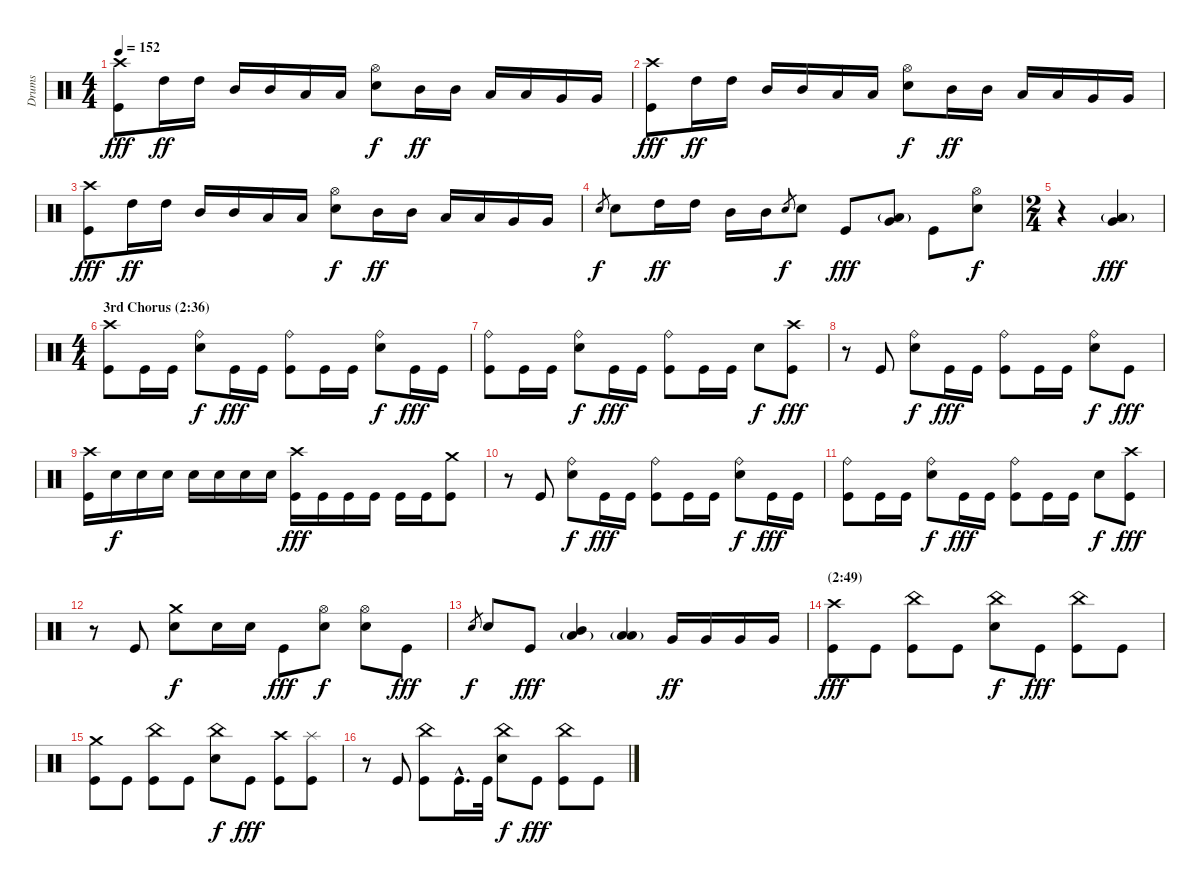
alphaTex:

\track ("Drums" "Drums") {instrument percussion}
\staff {score}
\articulation defaults
\ts (4 4)
\tempo 152
\clef neutral
\ks c
("Crash high (hit)" "Kick (hit)").8{dy fff} "High Tom (hit)".16{dy ff} "High Tom (hit)".16 "Mid Tom (hit)".16 "Mid Tom (hit)".16 "Low Tom (hit)".16 "Low Tom (hit)".16 ("Hi-Hat (open)" "Snare (hit) 2").8{dy f} "Mid Tom (hit)".16{dy ff} "Mid Tom (hit)".16 "Low Tom (hit)".16 "Low Tom (hit)".16 "Very Low Tom (hit)".16 "Very Low Tom (hit)".16 |
("Crash high (hit)" "Kick (hit)").8{dy fff} "High Tom (hit)".16{dy ff} "High Tom (hit)".16 "Mid Tom (hit)".16 "Mid Tom (hit)".16 "Low Tom (hit)".16 "Low Tom (hit)".16 ("Hi-Hat (open)" "Snare (hit) 2").8{dy f} "Mid Tom (hit)".16{dy ff} "Mid Tom (hit)".16 "Low Tom (hit)".16 "Low Tom (hit)".16 "Very Low Tom (hit)".16 "Very Low Tom (hit)".16 |
("Crash high (hit)" "Kick (hit)").8{dy fff} "High Tom (hit)".16{dy ff} "High Tom (hit)".16 "Mid Tom (hit)".16 "Mid Tom (hit)".16 "Low Tom (hit)".16 "Low Tom (hit)".16 ("Hi-Hat (open)" "Snare (hit) 2").8{dy f} "Mid Tom (hit)".16{dy ff} "Mid Tom (hit)".16 "Low Tom (hit)".16 "Low Tom (hit)".16 "Very Low Tom (hit)".16 "Very Low Tom (hit)".16 |
"Snare (hit) 2".8{gr dy f} "Snare (hit) 2".8 "High Tom (hit)".16{dy ff} "High Tom (hit)".16 "Mid Tom (hit)".16 "Mid Tom (hit)".16 "Snare (hit) 2".8{gr dy f} "Snare (hit) 2".8 "Kick (hit)".8{dy fff} ("Very Low Tom (hit)" "Low Floor Tom (hit)"{g}).8 "Kick (hit)".8 ("Hi-Hat (open)" "Snare (hit) 2").8{dy f} |
\ts (2 4)
r.4 ("Very Low Tom (hit)" "Low Floor Tom (hit)"{g}).4{dy fff} |
\ts (4 4)
\section ("" "3rd Chorus (2:36)")
("Crash high (hit)" "Kick (hit)").8 "Kick (hit)".16 "Kick (hit)".16 ("Ride (bell)" "Snare (hit) 2").8{dy f} "Kick (hit)".16{dy fff} "Kick (hit)".16 ("Ride (bell)" "Kick (hit)").8 "Kick (hit)".16 "Kick (hit)".16 ("Ride (bell)" "Snare (hit) 2").8{dy f} "Kick (hit)".16{dy fff} "Kick (hit)".16 |
("Ride (bell)" "Kick (hit)").8 "Kick (hit)".16 "Kick (hit)".16 ("Ride (bell)" "Snare (hit) 2").8{dy f} "Kick (hit)".16{dy fff} "Kick (hit)".16 ("Ride (bell)" "Kick (hit)").8 "Kick (hit)".16 "Kick (hit)".16 "Snare (hit) 2".8{dy f} ("Crash high (hit)" "Kick (hit)").8{dy fff} |
r.8 "Kick (hit)".8 ("Ride (bell)" "Snare (hit) 2").8{dy f} "Kick (hit)".16{dy fff} "Kick (hit)".16 ("Ride (bell)" "Kick (hit)").8 "Kick (hit)".16 "Kick (hit)".16 ("Ride (bell)" "Snare (hit) 2").8{dy f} "Kick (hit)".8{dy fff} |
("Crash high (hit)" "Kick (hit)").16 "Snare (hit) 2".16{dy f} "Snare (hit) 2".16 "Snare (hit) 2".16 "Snare (hit) 2".16 "Snare (hit) 2".16 "Snare (hit) 2".16 "Snare (hit) 2".16 ("Crash high (hit)" "Kick (hit)").16{dy fff} "Kick (hit)".16 "Kick (hit)".16 "Kick (hit)".16 "Kick (hit)".16 "Kick (hit)".16 ("Crash medium (hit)" "Kick (hit)").8 |
r.8 "Kick (hit)".8 ("Ride (bell)" "Snare (hit) 2").8{dy f} "Kick (hit)".16{dy fff} "Kick (hit)".16 ("Ride (bell)" "Kick (hit)").8 "Kick (hit)".16 "Kick (hit)".16 ("Ride (bell)" "Snare (hit) 2").8{dy f} "Kick (hit)".16{dy fff} "Kick (hit)".16 |
("Ride (bell)" "Kick (hit)").8 "Kick (hit)".16 "Kick (hit)".16 ("Ride (bell)" "Snare (hit) 2").8{dy f} "Kick (hit)".16{dy fff} "Kick (hit)".16 ("Ride (bell)" "Kick (hit)").8 "Kick (hit)".16 "Kick (hit)".16 "Snare (hit) 2".8{dy f} ("Crash high (hit)" "Kick (hit)").8{dy fff} |
r.8 "Kick (hit)".8 ("Crash medium (hit)" "Snare (hit) 2").8{dy f} "Snare (hit) 2".16 "Snare (hit) 2".16 "Kick (hit)".8{dy fff} ("Hi-Hat (open)" "Snare (hit) 2").8{dy f} ("Hi-Hat (open)" "Snare (hit) 2").8 "Kick (hit)".8{dy fff} |
"Snare (hit) 2".8{gr dy f} "Snare (hit) 2".8 "Kick (hit)".8{dy fff} ("Mid Tom (hit)" "Low Floor Tom (hit)"{g}).4 ("Low Tom (hit)" "Low Floor Tom (hit)"{g}).4 "Very Low Tom (hit)".16{dy ff} "Very Low Tom (hit)".16 "Very Low Tom (hit)".16 "Very Low Tom (hit)".16 |
\section ("" "(2:49)")
("Crash high (hit)" "Kick (hit)").8{dy fff} "Kick (hit)".8 ("China (hit)" "Kick (hit)").8 "Kick (hit)".8 ("China (hit)" "Snare (hit) 2").8{dy f} "Kick (hit)".8{dy fff} ("China (hit)" "Kick (hit)").8 "Kick (hit)".8 |
("Crash medium (hit)" "Kick (hit)").8 "Kick (hit)".8 ("China (hit)" "Kick (hit)").8 "Kick (hit)".8 ("China (hit)" "Snare (hit) 2").8{dy f} "Kick (hit)".8{dy fff} ("Crash high (hit)" "Kick (hit)").8 ("Splash (hit)" "Kick (hit)").8 |
r.8 "Kick (hit)".8 ("China (hit)" "Kick (hit)").8 "Kick (hit)"{hac}.16{d} "Kick (hit)".32 ("China (hit)" "Snare (hit) 2").8{dy f} "Kick (hit)".8{dy fff} ("China (hit)" "Kick (hit)").8 "Kick (hit)".8
